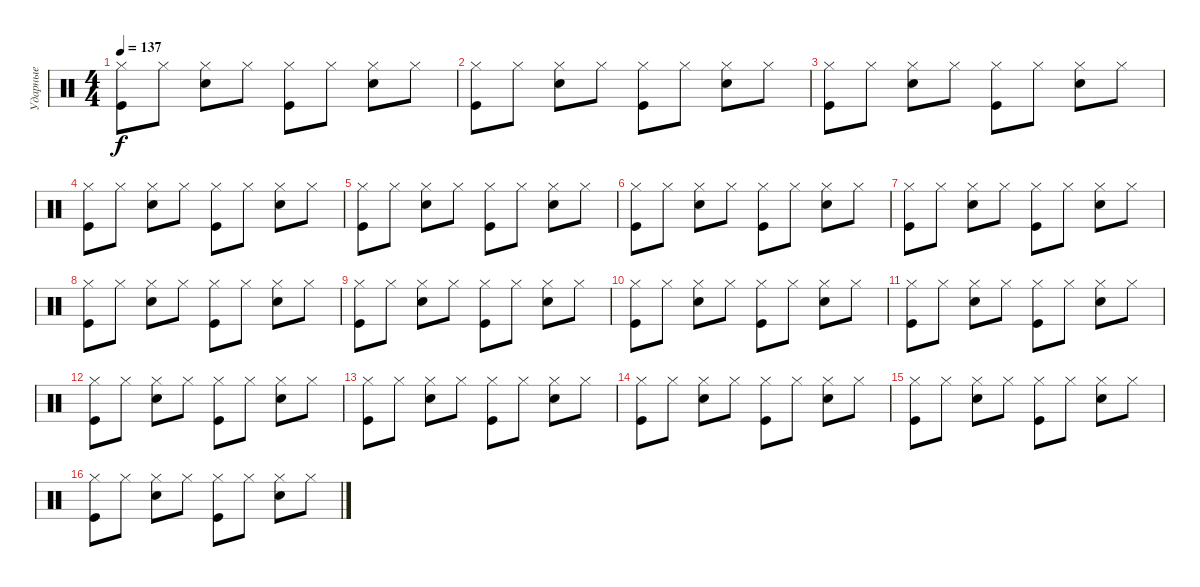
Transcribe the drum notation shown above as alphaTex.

\track ("Ударные" "Ударные") {instrument percussion}
\staff {score}
\articulation defaults
\ts (4 4)
\tempo 137
\clef neutral
\ks c
("Hi-Hat (closed)" "Kick (hit)").8{dy f} "Hi-Hat (closed)".8 ("Hi-Hat (closed)" "Snare (hit) 2").8 "Hi-Hat (closed)".8 ("Hi-Hat (closed)" "Kick (hit)").8 "Hi-Hat (closed)".8 ("Hi-Hat (closed)" "Snare (hit) 2").8 "Hi-Hat (closed)".8 |
("Hi-Hat (closed)" "Kick (hit)").8 "Hi-Hat (closed)".8 ("Hi-Hat (closed)" "Snare (hit) 2").8 "Hi-Hat (closed)".8 ("Hi-Hat (closed)" "Kick (hit)").8 "Hi-Hat (closed)".8 ("Hi-Hat (closed)" "Snare (hit) 2").8 "Hi-Hat (closed)".8 |
("Hi-Hat (closed)" "Kick (hit)").8 "Hi-Hat (closed)".8 ("Hi-Hat (closed)" "Snare (hit) 2").8 "Hi-Hat (closed)".8 ("Hi-Hat (closed)" "Kick (hit)").8 "Hi-Hat (closed)".8 ("Hi-Hat (closed)" "Snare (hit) 2").8 "Hi-Hat (closed)".8 |
("Hi-Hat (closed)" "Kick (hit)").8 "Hi-Hat (closed)".8 ("Hi-Hat (closed)" "Snare (hit) 2").8 "Hi-Hat (closed)".8 ("Hi-Hat (closed)" "Kick (hit)").8 "Hi-Hat (closed)".8 ("Hi-Hat (closed)" "Snare (hit) 2").8 "Hi-Hat (closed)".8 |
("Hi-Hat (closed)" "Kick (hit)").8 "Hi-Hat (closed)".8 ("Hi-Hat (closed)" "Snare (hit) 2").8 "Hi-Hat (closed)".8 ("Hi-Hat (closed)" "Kick (hit)").8 "Hi-Hat (closed)".8 ("Hi-Hat (closed)" "Snare (hit) 2").8 "Hi-Hat (closed)".8 |
("Hi-Hat (closed)" "Kick (hit)").8 "Hi-Hat (closed)".8 ("Hi-Hat (closed)" "Snare (hit) 2").8 "Hi-Hat (closed)".8 ("Hi-Hat (closed)" "Kick (hit)").8 "Hi-Hat (closed)".8 ("Hi-Hat (closed)" "Snare (hit) 2").8 "Hi-Hat (closed)".8 |
("Hi-Hat (closed)" "Kick (hit)").8 "Hi-Hat (closed)".8 ("Hi-Hat (closed)" "Snare (hit) 2").8 "Hi-Hat (closed)".8 ("Hi-Hat (closed)" "Kick (hit)").8 "Hi-Hat (closed)".8 ("Hi-Hat (closed)" "Snare (hit) 2").8 "Hi-Hat (closed)".8 |
("Hi-Hat (closed)" "Kick (hit)").8 "Hi-Hat (closed)".8 ("Hi-Hat (closed)" "Snare (hit) 2").8 "Hi-Hat (closed)".8 ("Hi-Hat (closed)" "Kick (hit)").8 "Hi-Hat (closed)".8 ("Hi-Hat (closed)" "Snare (hit) 2").8 "Hi-Hat (closed)".8 |
("Hi-Hat (closed)" "Kick (hit)").8 "Hi-Hat (closed)".8 ("Hi-Hat (closed)" "Snare (hit) 2").8 "Hi-Hat (closed)".8 ("Hi-Hat (closed)" "Kick (hit)").8 "Hi-Hat (closed)".8 ("Hi-Hat (closed)" "Snare (hit) 2").8 "Hi-Hat (closed)".8 |
("Hi-Hat (closed)" "Kick (hit)").8 "Hi-Hat (closed)".8 ("Hi-Hat (closed)" "Snare (hit) 2").8 "Hi-Hat (closed)".8 ("Hi-Hat (closed)" "Kick (hit)").8 "Hi-Hat (closed)".8 ("Hi-Hat (closed)" "Snare (hit) 2").8 "Hi-Hat (closed)".8 |
("Hi-Hat (closed)" "Kick (hit)").8 "Hi-Hat (closed)".8 ("Hi-Hat (closed)" "Snare (hit) 2").8 "Hi-Hat (closed)".8 ("Hi-Hat (closed)" "Kick (hit)").8 "Hi-Hat (closed)".8 ("Hi-Hat (closed)" "Snare (hit) 2").8 "Hi-Hat (closed)".8 |
("Hi-Hat (closed)" "Kick (hit)").8 "Hi-Hat (closed)".8 ("Hi-Hat (closed)" "Snare (hit) 2").8 "Hi-Hat (closed)".8 ("Hi-Hat (closed)" "Kick (hit)").8 "Hi-Hat (closed)".8 ("Hi-Hat (closed)" "Snare (hit) 2").8 "Hi-Hat (closed)".8 |
("Hi-Hat (closed)" "Kick (hit)").8 "Hi-Hat (closed)".8 ("Hi-Hat (closed)" "Snare (hit) 2").8 "Hi-Hat (closed)".8 ("Hi-Hat (closed)" "Kick (hit)").8 "Hi-Hat (closed)".8 ("Hi-Hat (closed)" "Snare (hit) 2").8 "Hi-Hat (closed)".8 |
("Hi-Hat (closed)" "Kick (hit)").8 "Hi-Hat (closed)".8 ("Hi-Hat (closed)" "Snare (hit) 2").8 "Hi-Hat (closed)".8 ("Hi-Hat (closed)" "Kick (hit)").8 "Hi-Hat (closed)".8 ("Hi-Hat (closed)" "Snare (hit) 2").8 "Hi-Hat (closed)".8 |
("Hi-Hat (closed)" "Kick (hit)").8 "Hi-Hat (closed)".8 ("Hi-Hat (closed)" "Snare (hit) 2").8 "Hi-Hat (closed)".8 ("Hi-Hat (closed)" "Kick (hit)").8 "Hi-Hat (closed)".8 ("Hi-Hat (closed)" "Snare (hit) 2").8 "Hi-Hat (closed)".8 |
("Hi-Hat (closed)" "Kick (hit)").8 "Hi-Hat (closed)".8 ("Hi-Hat (closed)" "Snare (hit) 2").8 "Hi-Hat (closed)".8 ("Hi-Hat (closed)" "Kick (hit)").8 "Hi-Hat (closed)".8 ("Hi-Hat (closed)" "Snare (hit) 2").8 "Hi-Hat (closed)".8
